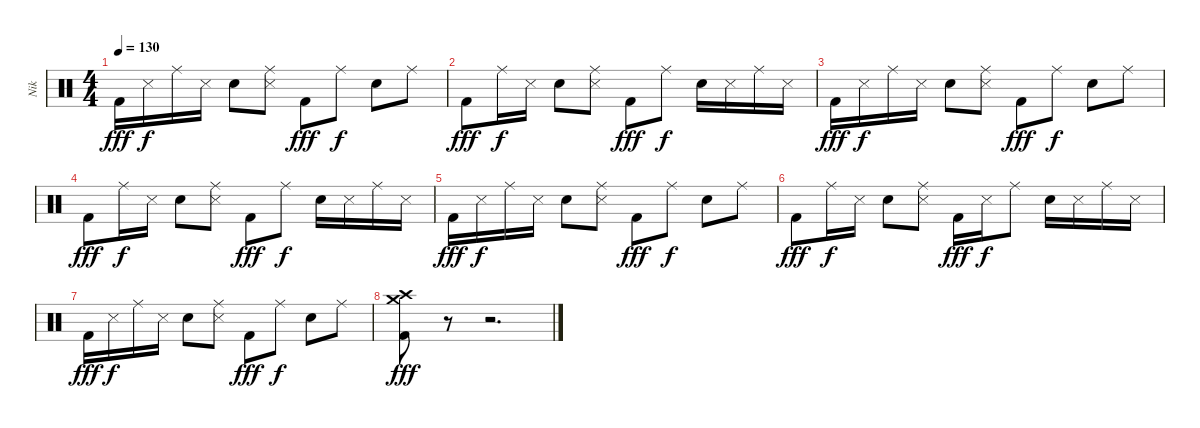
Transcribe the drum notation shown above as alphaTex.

\track ("Nik" "Nik") {instrument percussion}
\staff {score}
\articulation defaults
\ts (4 4)
\tempo 130
\clef neutral
\ks c "Kick (hit) 2".16{dy fff} "Snare (side stick) 3".16{dy f} "Ride (middle)".16 "Snare (side stick) 3".16 "Electric Snare (hit)".8
("Ride (middle)" "Snare (side stick) 3").8 "Kick (hit) 2".8{dy fff} "Ride (middle)".8{dy f} "Electric Snare (hit)".8 "Ride (middle)".8 |
"Kick (hit) 2".8{dy fff} "Ride (middle)".16{dy f} "Snare (side stick) 3".16 "Electric Snare (hit)".8 ("Ride (middle)" "Snare (side stick) 3").8 "Kick (hit) 2".8{dy fff} "Ride (middle)".8{dy f} "Electric Snare (hit)".16 "Snare (side stick) 3".16 "Ride (middle)".16 "Snare (side stick) 3".16 |
"Kick (hit) 2".16{dy fff} "Snare (side stick) 3".16{dy f} "Ride (middle)".16 "Snare (side stick) 3".16 "Electric Snare (hit)".8 ("Ride (middle)" "Snare (side stick) 3").8 "Kick (hit) 2".8{dy fff} "Ride (middle)".8{dy f} "Electric Snare (hit)".8 "Ride (middle)".8 |
"Kick (hit) 2".8{dy fff} "Ride (middle)".16{dy f} "Snare (side stick) 3".16 "Electric Snare (hit)".8 ("Ride (middle)" "Snare (side stick) 3").8 "Kick (hit) 2".8{dy fff} "Ride (middle)".8{dy f} "Electric Snare (hit)".16 "Snare (side stick) 3".16 "Ride (middle)".16 "Snare (side stick) 3".16 |
"Kick (hit) 2".16{dy fff} "Snare (side stick) 3".16{dy f} "Ride (middle)".16 "Snare (side stick) 3".16 "Electric Snare (hit)".8 ("Ride (middle)" "Snare (side stick) 3").8 "Kick (hit) 2".8{dy fff} "Ride (middle)".8{dy f} "Electric Snare (hit)".8 "Ride (middle)".8 |
"Kick (hit) 2".8{dy fff} "Ride (middle)".16{dy f} "Snare (side stick) 3".16 "Electric Snare (hit)".8 ("Ride (middle)" "Snare (side stick) 3").8 "Kick (hit) 2".16{dy fff} "Snare (side stick) 3".16{dy f} "Ride (middle)".8 "Electric Snare (hit)".16 "Snare (side stick) 3".16 "Ride (middle)".16 "Snare (side stick) 3".16 |
"Kick (hit) 2".16{dy fff} "Snare (side stick) 3".16{dy f} "Ride (middle)".16 "Snare (side stick) 3".16 "Electric Snare (hit)".8 ("Ride (middle)" "Snare (side stick) 3").8 "Kick (hit) 2".8{dy fff} "Ride (middle)".8{dy f} "Electric Snare (hit)".8 "Ride (middle)".8 |
("Crash high (hit)" "Crash medium (hit)" "Kick (hit) 2").8{dy fff} r.8 r.2{d}
